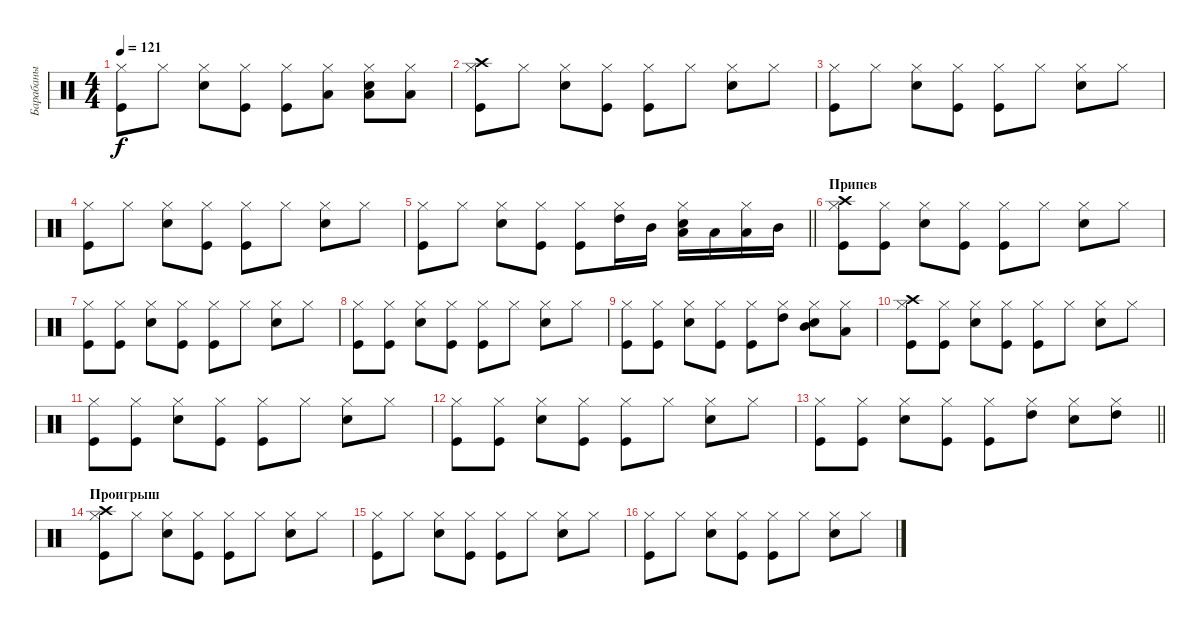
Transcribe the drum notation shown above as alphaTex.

\track ("Барабаны" "Барабаны") {instrument percussion}
\staff {score}
\articulation defaults
\ts (4 4)
\tempo 121
\clef neutral
\ks c
("Kick (hit)" "Hi-Hat (closed)").8{dy f} "Hi-Hat (closed)".8 ("Snare (hit) 2" "Hi-Hat (closed)").8 ("Kick (hit)" "Hi-Hat (closed)").8 ("Kick (hit)" "Hi-Hat (closed)").8 ("Hi-Hat (closed)" "Low Tom (hit)").8 ("Snare (hit) 2" "Hi-Hat (closed)" "Low Tom (hit)").8 ("Hi-Hat (closed)" "Low Tom (hit)").8 |
("Kick (hit)" "Hi-Hat (closed)" "Crash high (hit)").8 "Hi-Hat (closed)".8 ("Snare (hit) 2" "Hi-Hat (closed)").8 ("Kick (hit)" "Hi-Hat (closed)").8 ("Kick (hit)" "Hi-Hat (closed)").8 "Hi-Hat (closed)".8 ("Snare (hit) 2" "Hi-Hat (closed)").8 "Hi-Hat (closed)".8 |
("Kick (hit)" "Hi-Hat (closed)").8 "Hi-Hat (closed)".8 ("Snare (hit) 2" "Hi-Hat (closed)").8 ("Kick (hit)" "Hi-Hat (closed)").8 ("Kick (hit)" "Hi-Hat (closed)").8 "Hi-Hat (closed)".8 ("Snare (hit) 2" "Hi-Hat (closed)").8 "Hi-Hat (closed)".8 |
("Kick (hit)" "Hi-Hat (closed)").8 "Hi-Hat (closed)".8 ("Snare (hit) 2" "Hi-Hat (closed)").8 ("Kick (hit)" "Hi-Hat (closed)").8 ("Kick (hit)" "Hi-Hat (closed)").8 "Hi-Hat (closed)".8 ("Snare (hit) 2" "Hi-Hat (closed)").8 "Hi-Hat (closed)".8 |
\barLineRight lightlight
("Kick (hit)" "Hi-Hat (closed)").8 "Hi-Hat (closed)".8 ("Snare (hit) 2" "Hi-Hat (closed)").8 ("Kick (hit)" "Hi-Hat (closed)").8 ("Kick (hit)" "Hi-Hat (closed)").8 ("Hi-Hat (closed)" "High Tom (hit)").16 "Mid Tom (hit)".16 ("Snare (hit) 2" "Hi-Hat (closed)" "Low Tom (hit)").16 "Low Tom (hit)".16 ("Hi-Hat (closed)" "Low Tom (hit)").16 "Mid Tom (hit)".16 |
\section ("" "Припев")
("Kick (hit)" "Hi-Hat (closed)" "Crash high (hit)").8 ("Kick (hit)" "Hi-Hat (closed)").8 ("Snare (hit) 2" "Hi-Hat (closed)").8 ("Kick (hit)" "Hi-Hat (closed)").8 ("Kick (hit)" "Hi-Hat (closed)").8 "Hi-Hat (closed)".8 ("Snare (hit) 2" "Hi-Hat (closed)").8 "Hi-Hat (closed)".8 |
("Kick (hit)" "Hi-Hat (closed)").8 ("Kick (hit)" "Hi-Hat (closed)").8 ("Snare (hit) 2" "Hi-Hat (closed)").8 ("Kick (hit)" "Hi-Hat (closed)").8 ("Kick (hit)" "Hi-Hat (closed)").8 "Hi-Hat (closed)".8 ("Snare (hit) 2" "Hi-Hat (closed)").8 "Hi-Hat (closed)".8 |
("Kick (hit)" "Hi-Hat (closed)").8 ("Kick (hit)" "Hi-Hat (closed)").8 ("Snare (hit) 2" "Hi-Hat (closed)").8 ("Kick (hit)" "Hi-Hat (closed)").8 ("Kick (hit)" "Hi-Hat (closed)").8 "Hi-Hat (closed)".8 ("Snare (hit) 2" "Hi-Hat (closed)").8 "Hi-Hat (closed)".8 |
("Kick (hit)" "Hi-Hat (closed)").8 ("Kick (hit)" "Hi-Hat (closed)").8 ("Snare (hit) 2" "Hi-Hat (closed)").8 ("Kick (hit)" "Hi-Hat (closed)").8 ("Kick (hit)" "Hi-Hat (closed)").8 ("Hi-Hat (closed)" "High Tom (hit)").8 ("Snare (hit) 2" "Hi-Hat (closed)" "Mid Tom (hit)").8 ("Hi-Hat (closed)" "Low Tom (hit)").8 |
("Kick (hit)" "Hi-Hat (closed)" "Crash high (hit)").8 ("Kick (hit)" "Hi-Hat (closed)").8 ("Snare (hit) 2" "Hi-Hat (closed)").8 ("Kick (hit)" "Hi-Hat (closed)").8 ("Kick (hit)" "Hi-Hat (closed)").8 "Hi-Hat (closed)".8 ("Snare (hit) 2" "Hi-Hat (closed)").8 "Hi-Hat (closed)".8 |
("Kick (hit)" "Hi-Hat (closed)").8 ("Kick (hit)" "Hi-Hat (closed)").8 ("Snare (hit) 2" "Hi-Hat (closed)").8 ("Kick (hit)" "Hi-Hat (closed)").8 ("Kick (hit)" "Hi-Hat (closed)").8 "Hi-Hat (closed)".8 ("Snare (hit) 2" "Hi-Hat (closed)").8 "Hi-Hat (closed)".8 |
("Kick (hit)" "Hi-Hat (closed)").8 ("Kick (hit)" "Hi-Hat (closed)").8 ("Snare (hit) 2" "Hi-Hat (closed)").8 ("Kick (hit)" "Hi-Hat (closed)").8 ("Kick (hit)" "Hi-Hat (closed)").8 "Hi-Hat (closed)".8 ("Snare (hit) 2" "Hi-Hat (closed)").8 "Hi-Hat (closed)".8 |
\barLineRight lightlight
("Kick (hit)" "Hi-Hat (closed)").8 ("Kick (hit)" "Hi-Hat (closed)").8 ("Snare (hit) 2" "Hi-Hat (closed)").8 ("Kick (hit)" "Hi-Hat (closed)").8 ("Kick (hit)" "Hi-Hat (closed)").8 ("Hi-Hat (closed)" "High Tom (hit)").8 ("Snare (hit) 2" "Hi-Hat (closed)").8 ("Hi-Hat (closed)" "High Tom (hit)").8 |
\section ("" "Проигрыш")
("Kick (hit)" "Hi-Hat (closed)" "Crash high (hit)").8 "Hi-Hat (closed)".8 ("Snare (hit) 2" "Hi-Hat (closed)").8 ("Kick (hit)" "Hi-Hat (closed)").8 ("Kick (hit)" "Hi-Hat (closed)").8 "Hi-Hat (closed)".8 ("Snare (hit) 2" "Hi-Hat (closed)").8 "Hi-Hat (closed)".8 |
("Kick (hit)" "Hi-Hat (closed)").8 "Hi-Hat (closed)".8 ("Snare (hit) 2" "Hi-Hat (closed)").8 ("Kick (hit)" "Hi-Hat (closed)").8 ("Kick (hit)" "Hi-Hat (closed)").8 "Hi-Hat (closed)".8 ("Snare (hit) 2" "Hi-Hat (closed)").8 "Hi-Hat (closed)".8 |
("Kick (hit)" "Hi-Hat (closed)").8 "Hi-Hat (closed)".8 ("Snare (hit) 2" "Hi-Hat (closed)").8 ("Kick (hit)" "Hi-Hat (closed)").8 ("Kick (hit)" "Hi-Hat (closed)").8 "Hi-Hat (closed)".8 ("Snare (hit) 2" "Hi-Hat (closed)").8 "Hi-Hat (closed)".8
